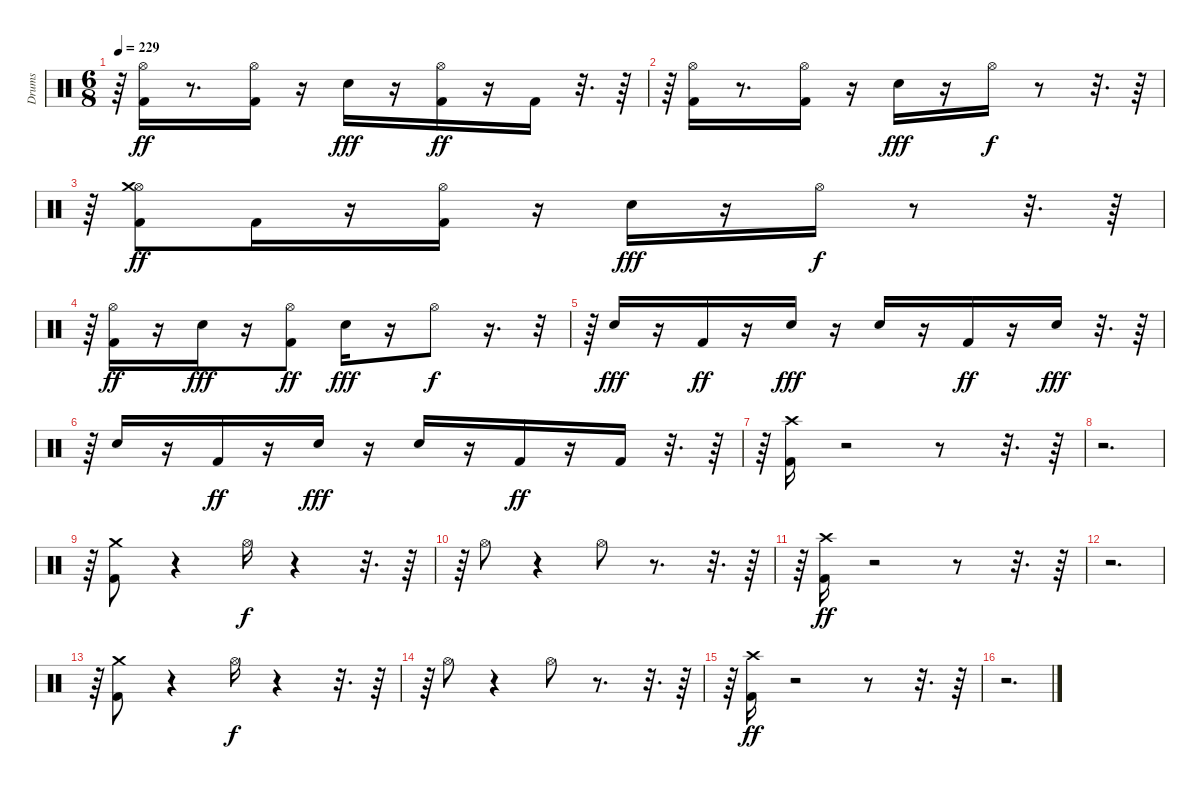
\track ("Drums" "Drums") {instrument percussion}
\staff {score}
\articulation defaults
\ts (6 8)
\tempo 229
\clef neutral
\ks c
r.64{dy f} ("Kick (hit) 2" "Hi-Hat (open)").16{dy ff} r.8{d} ("Kick (hit) 2" "Hi-Hat (open)").16 r.16 "Snare (hit) 2".16{dy fff} r.16 ("Kick (hit) 2" "Hi-Hat (open)").16{dy ff} r.16 "Kick (hit) 2".16 r.32{d} r.64 |
r.64 ("Kick (hit) 2" "Hi-Hat (open)").16 r.8{d} ("Kick (hit) 2" "Hi-Hat (open)").16 r.16 "Snare (hit) 2".16{dy fff} r.16 "Hi-Hat (open)".16{dy f} r.8 r.32{d} r.64 |
r.64 ("Kick (hit) 2" "Hi-Hat (open)" "Crash medium (hit)").8{dy ff} "Kick (hit) 2".16 r.16 ("Kick (hit) 2" "Hi-Hat (open)").16 r.16 "Snare (hit) 2".16{dy fff} r.16 "Hi-Hat (open)".16{dy f} r.8 r.32{d} r.64 |
r.64 ("Kick (hit) 2" "Hi-Hat (open)").16{dy ff} r.16 "Snare (hit) 2".16{dy fff} r.16 ("Kick (hit) 2" "Hi-Hat (open)").8{dy ff} "Snare (hit) 2".16{dy fff} r.16 "Hi-Hat (open)".8{dy f} r.16{d} r.32{tu (5 4)} |
r.64 "Snare (hit) 2".16{dy fff} r.16 "Kick (hit) 2".16{dy ff} r.16 "Snare (hit) 2".16{dy fff} r.16 "Snare (hit) 2".16 r.16 "Kick (hit) 2".16{dy ff} r.16 "Snare (hit) 2".16{dy fff} r.32{d} r.64 |
r.64 "Snare (hit) 2".16 r.16 "Kick (hit) 2".16{dy ff} r.16 "Snare (hit) 2".16{dy fff} r.16 "Snare (hit) 2".16 r.16 "Kick (hit) 2".16{dy ff} r.16 "Kick (hit) 2".16{volume 16} r.32{d} r.64 |
r.64 ("Kick (hit) 2" "Crash high (hit)").16 r.2 r.8 r.32{d} r.64 |
r.2{d} |
r.64 ("Kick (hit) 2" "Crash medium (hit)").8{volume 13} r.4 "Hi-Hat (open)".16{dy f volume 16} r.4 r.32{d} r.64 |
r.64 "Hi-Hat (open)".8 r.4 "Hi-Hat (open)".8 r.8{d} r.32{d} r.64 |
r.64 ("Kick (hit) 2" "Crash high (hit)").16{dy ff} r.2 r.8 r.32{d} r.64 |
r.2{d} |
r.64 ("Kick (hit) 2" "Crash medium (hit)").8{volume 16} r.4 "Hi-Hat (open)".16{dy f} r.4 r.32{d} r.64 |
r.64 "Hi-Hat (open)".8 r.4 "Hi-Hat (open)".8 r.8{d} r.32{d} r.64 |
r.64 ("Kick (hit) 2" "Crash high (hit)").16{dy ff} r.2 r.8 r.32{d} r.64 |
r.2{d}
